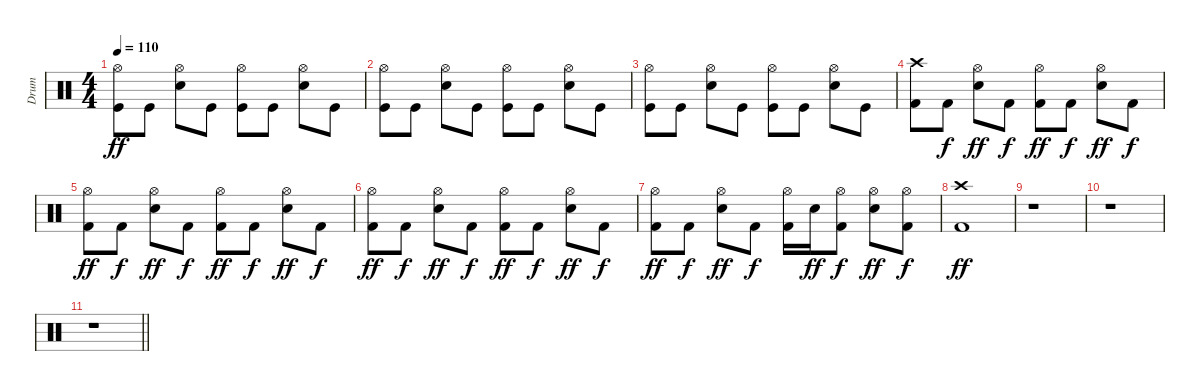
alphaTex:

\track ("Drum" "Drum") {instrument percussion}
\staff {score}
\articulation defaults
\ts (4 4)
\tempo 110
\clef neutral
\ks c
("Kick (hit)" "Hi-Hat (open)").8{dy ff} "Kick (hit)".8 ("Snare (hit) 2" "Hi-Hat (open)").8 "Kick (hit)".8 ("Kick (hit)" "Hi-Hat (open)").8 "Kick (hit)".8 ("Snare (hit) 2" "Hi-Hat (open)").8 "Kick (hit)".8 |
("Kick (hit)" "Hi-Hat (open)").8 "Kick (hit)".8 ("Snare (hit) 2" "Hi-Hat (open)").8 "Kick (hit)".8 ("Kick (hit)" "Hi-Hat (open)").8 "Kick (hit)".8 ("Snare (hit) 2" "Hi-Hat (open)").8 "Kick (hit)".8 |
("Kick (hit)" "Hi-Hat (open)").8 "Kick (hit)".8 ("Snare (hit) 2" "Hi-Hat (open)").8 "Kick (hit)".8 ("Kick (hit)" "Hi-Hat (open)").8 "Kick (hit)".8 ("Snare (hit) 2" "Hi-Hat (open)").8 "Kick (hit)".8 |
("Kick (hit) 2" "Crash high (hit)").8 "Kick (hit) 2".8{dy f} ("Snare (hit) 2" "Hi-Hat (open)").8{dy ff} "Kick (hit) 2".8{dy f} ("Kick (hit) 2" "Hi-Hat (open)").8{dy ff} "Kick (hit) 2".8{dy f} ("Snare (hit) 2" "Hi-Hat (open)").8{dy ff} "Kick (hit) 2".8{dy f} |
("Kick (hit) 2" "Hi-Hat (open)").8{dy ff} "Kick (hit) 2".8{dy f} ("Snare (hit) 2" "Hi-Hat (open)").8{dy ff} "Kick (hit) 2".8{dy f} ("Kick (hit) 2" "Hi-Hat (open)").8{dy ff} "Kick (hit) 2".8{dy f} ("Snare (hit) 2" "Hi-Hat (open)").8{dy ff} "Kick (hit) 2".8{dy f} |
("Kick (hit) 2" "Hi-Hat (open)").8{dy ff} "Kick (hit) 2".8{dy f} ("Snare (hit) 2" "Hi-Hat (open)").8{dy ff} "Kick (hit) 2".8{dy f} ("Kick (hit) 2" "Hi-Hat (open)").8{dy ff} "Kick (hit) 2".8{dy f} ("Snare (hit) 2" "Hi-Hat (open)").8{dy ff} "Kick (hit) 2".8{dy f} |
("Kick (hit) 2" "Hi-Hat (open)").8{dy ff} "Kick (hit) 2".8{dy f} ("Snare (hit) 2" "Hi-Hat (open)").8{dy ff} "Kick (hit) 2".8{dy f} ("Kick (hit) 2" "Hi-Hat (open)").16 "Snare (hit) 2".16{dy ff} ("Kick (hit) 2" "Hi-Hat (open)").8{dy f} ("Snare (hit) 2" "Hi-Hat (open)").8{dy ff} ("Kick (hit) 2" "Hi-Hat (open)").8{dy f} |
("Crash high (hit)" "Kick (hit) 2").1{dy ff} |
r.1 |
r.1 |
\barLineRight lightlight
r.1
